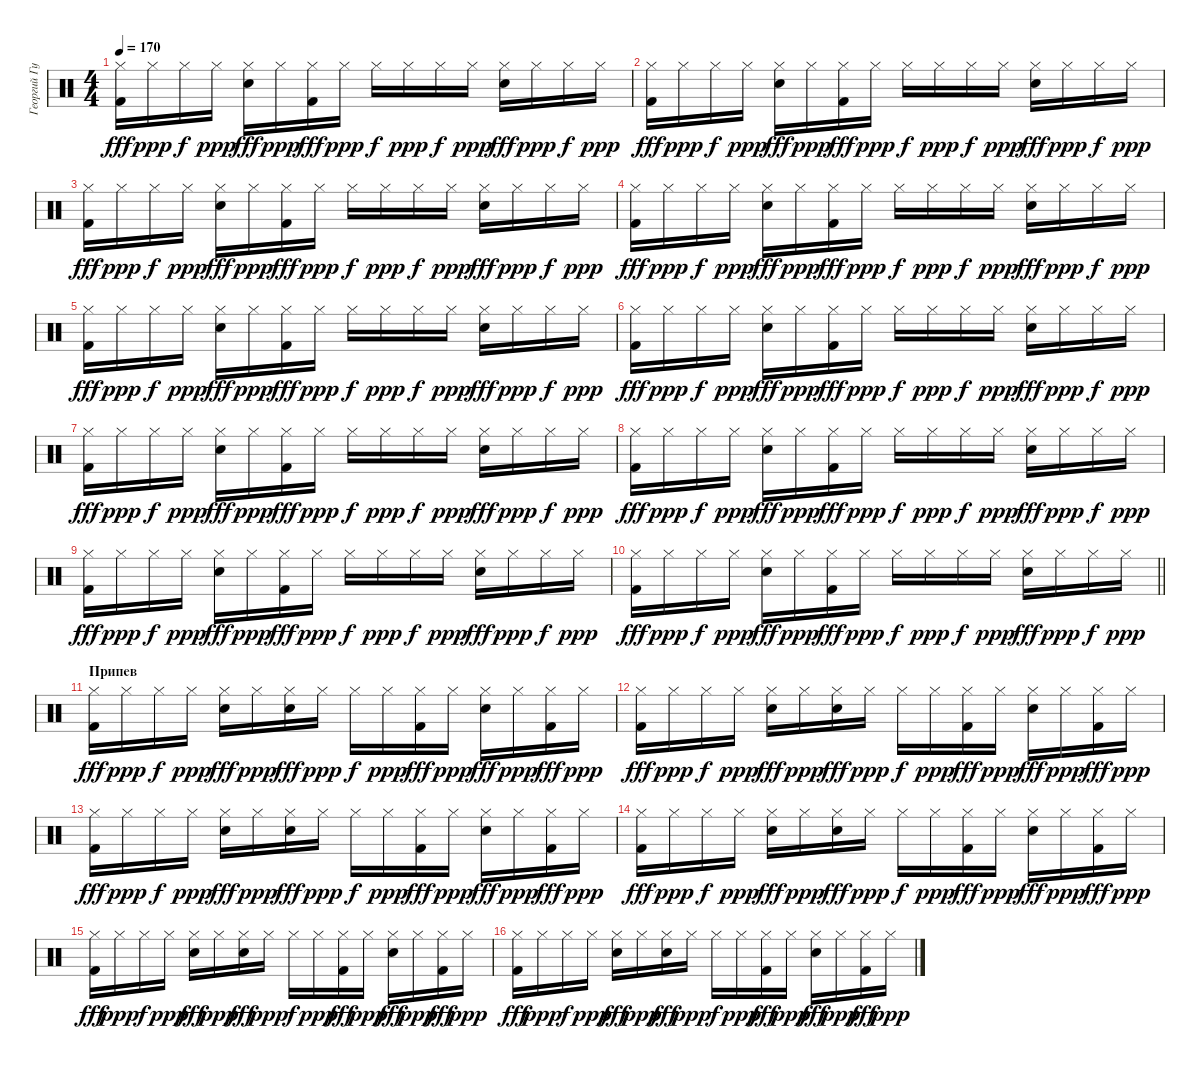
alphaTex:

\track ("Георгий Гурьянов" "Георгий Гу") {instrument percussion}
\staff {score}
\articulation defaults
\ts (4 4)
\tempo 170
\clef neutral
\ks c
("Hi-Hat (closed)" "Kick (hit) 2").16{dy fff} "Hi-Hat (closed)".16{dy ppp} "Hi-Hat (closed)".16{dy f} "Hi-Hat (closed)".16{dy ppp} ("Hi-Hat (closed)" "Electric Snare (hit)").16{dy fff} "Hi-Hat (closed)".16{dy ppp} ("Hi-Hat (closed)" "Kick (hit) 2").16{dy fff} "Hi-Hat (closed)".16{dy ppp} "Hi-Hat (closed)".16{dy f} "Hi-Hat (closed)".16{dy ppp} "Hi-Hat (closed)".16{dy f} "Hi-Hat (closed)".16{dy ppp} ("Hi-Hat (closed)" "Electric Snare (hit)").16{dy fff} "Hi-Hat (closed)".16{dy ppp} "Hi-Hat (closed)".16{dy f} "Hi-Hat (closed)".16{dy ppp} |
("Hi-Hat (closed)" "Kick (hit) 2").16{dy fff} "Hi-Hat (closed)".16{dy ppp} "Hi-Hat (closed)".16{dy f} "Hi-Hat (closed)".16{dy ppp} ("Hi-Hat (closed)" "Electric Snare (hit)").16{dy fff} "Hi-Hat (closed)".16{dy ppp} ("Hi-Hat (closed)" "Kick (hit) 2").16{dy fff} "Hi-Hat (closed)".16{dy ppp} "Hi-Hat (closed)".16{dy f} "Hi-Hat (closed)".16{dy ppp} "Hi-Hat (closed)".16{dy f} "Hi-Hat (closed)".16{dy ppp} ("Hi-Hat (closed)" "Electric Snare (hit)").16{dy fff} "Hi-Hat (closed)".16{dy ppp} "Hi-Hat (closed)".16{dy f} "Hi-Hat (closed)".16{dy ppp} |
("Hi-Hat (closed)" "Kick (hit) 2").16{dy fff} "Hi-Hat (closed)".16{dy ppp} "Hi-Hat (closed)".16{dy f} "Hi-Hat (closed)".16{dy ppp} ("Hi-Hat (closed)" "Electric Snare (hit)").16{dy fff} "Hi-Hat (closed)".16{dy ppp} ("Hi-Hat (closed)" "Kick (hit) 2").16{dy fff} "Hi-Hat (closed)".16{dy ppp} "Hi-Hat (closed)".16{dy f} "Hi-Hat (closed)".16{dy ppp} "Hi-Hat (closed)".16{dy f} "Hi-Hat (closed)".16{dy ppp} ("Hi-Hat (closed)" "Electric Snare (hit)").16{dy fff} "Hi-Hat (closed)".16{dy ppp} "Hi-Hat (closed)".16{dy f} "Hi-Hat (closed)".16{dy ppp} |
("Hi-Hat (closed)" "Kick (hit) 2").16{dy fff} "Hi-Hat (closed)".16{dy ppp} "Hi-Hat (closed)".16{dy f} "Hi-Hat (closed)".16{dy ppp} ("Hi-Hat (closed)" "Electric Snare (hit)").16{dy fff} "Hi-Hat (closed)".16{dy ppp} ("Hi-Hat (closed)" "Kick (hit) 2").16{dy fff} "Hi-Hat (closed)".16{dy ppp} "Hi-Hat (closed)".16{dy f} "Hi-Hat (closed)".16{dy ppp} "Hi-Hat (closed)".16{dy f} "Hi-Hat (closed)".16{dy ppp} ("Hi-Hat (closed)" "Electric Snare (hit)").16{dy fff} "Hi-Hat (closed)".16{dy ppp} "Hi-Hat (closed)".16{dy f} "Hi-Hat (closed)".16{dy ppp} |
("Hi-Hat (closed)" "Kick (hit) 2").16{dy fff} "Hi-Hat (closed)".16{dy ppp} "Hi-Hat (closed)".16{dy f} "Hi-Hat (closed)".16{dy ppp} ("Hi-Hat (closed)" "Electric Snare (hit)").16{dy fff} "Hi-Hat (closed)".16{dy ppp} ("Hi-Hat (closed)" "Kick (hit) 2").16{dy fff} "Hi-Hat (closed)".16{dy ppp} "Hi-Hat (closed)".16{dy f} "Hi-Hat (closed)".16{dy ppp} "Hi-Hat (closed)".16{dy f} "Hi-Hat (closed)".16{dy ppp} ("Hi-Hat (closed)" "Electric Snare (hit)").16{dy fff} "Hi-Hat (closed)".16{dy ppp} "Hi-Hat (closed)".16{dy f} "Hi-Hat (closed)".16{dy ppp} |
("Hi-Hat (closed)" "Kick (hit) 2").16{dy fff} "Hi-Hat (closed)".16{dy ppp} "Hi-Hat (closed)".16{dy f} "Hi-Hat (closed)".16{dy ppp} ("Hi-Hat (closed)" "Electric Snare (hit)").16{dy fff} "Hi-Hat (closed)".16{dy ppp} ("Hi-Hat (closed)" "Kick (hit) 2").16{dy fff} "Hi-Hat (closed)".16{dy ppp} "Hi-Hat (closed)".16{dy f} "Hi-Hat (closed)".16{dy ppp} "Hi-Hat (closed)".16{dy f} "Hi-Hat (closed)".16{dy ppp} ("Hi-Hat (closed)" "Electric Snare (hit)").16{dy fff} "Hi-Hat (closed)".16{dy ppp} "Hi-Hat (closed)".16{dy f} "Hi-Hat (closed)".16{dy ppp} |
("Hi-Hat (closed)" "Kick (hit) 2").16{dy fff} "Hi-Hat (closed)".16{dy ppp} "Hi-Hat (closed)".16{dy f} "Hi-Hat (closed)".16{dy ppp} ("Hi-Hat (closed)" "Electric Snare (hit)").16{dy fff} "Hi-Hat (closed)".16{dy ppp} ("Hi-Hat (closed)" "Kick (hit) 2").16{dy fff} "Hi-Hat (closed)".16{dy ppp} "Hi-Hat (closed)".16{dy f} "Hi-Hat (closed)".16{dy ppp} "Hi-Hat (closed)".16{dy f} "Hi-Hat (closed)".16{dy ppp} ("Hi-Hat (closed)" "Electric Snare (hit)").16{dy fff} "Hi-Hat (closed)".16{dy ppp} "Hi-Hat (closed)".16{dy f} "Hi-Hat (closed)".16{dy ppp} |
("Hi-Hat (closed)" "Kick (hit) 2").16{dy fff} "Hi-Hat (closed)".16{dy ppp} "Hi-Hat (closed)".16{dy f} "Hi-Hat (closed)".16{dy ppp} ("Hi-Hat (closed)" "Electric Snare (hit)").16{dy fff} "Hi-Hat (closed)".16{dy ppp} ("Hi-Hat (closed)" "Kick (hit) 2").16{dy fff} "Hi-Hat (closed)".16{dy ppp} "Hi-Hat (closed)".16{dy f} "Hi-Hat (closed)".16{dy ppp} "Hi-Hat (closed)".16{dy f} "Hi-Hat (closed)".16{dy ppp} ("Hi-Hat (closed)" "Electric Snare (hit)").16{dy fff} "Hi-Hat (closed)".16{dy ppp} "Hi-Hat (closed)".16{dy f} "Hi-Hat (closed)".16{dy ppp} |
("Hi-Hat (closed)" "Kick (hit) 2").16{dy fff} "Hi-Hat (closed)".16{dy ppp} "Hi-Hat (closed)".16{dy f} "Hi-Hat (closed)".16{dy ppp} ("Hi-Hat (closed)" "Electric Snare (hit)").16{dy fff} "Hi-Hat (closed)".16{dy ppp} ("Hi-Hat (closed)" "Kick (hit) 2").16{dy fff} "Hi-Hat (closed)".16{dy ppp} "Hi-Hat (closed)".16{dy f} "Hi-Hat (closed)".16{dy ppp} "Hi-Hat (closed)".16{dy f} "Hi-Hat (closed)".16{dy ppp} ("Hi-Hat (closed)" "Electric Snare (hit)").16{dy fff} "Hi-Hat (closed)".16{dy ppp} "Hi-Hat (closed)".16{dy f} "Hi-Hat (closed)".16{dy ppp} |
\barLineRight lightlight
("Hi-Hat (closed)" "Kick (hit) 2").16{dy fff} "Hi-Hat (closed)".16{dy ppp} "Hi-Hat (closed)".16{dy f} "Hi-Hat (closed)".16{dy ppp} ("Hi-Hat (closed)" "Electric Snare (hit)").16{dy fff} "Hi-Hat (closed)".16{dy ppp} ("Hi-Hat (closed)" "Kick (hit) 2").16{dy fff} "Hi-Hat (closed)".16{dy ppp} "Hi-Hat (closed)".16{dy f} "Hi-Hat (closed)".16{dy ppp} "Hi-Hat (closed)".16{dy f} "Hi-Hat (closed)".16{dy ppp} ("Hi-Hat (closed)" "Electric Snare (hit)").16{dy fff} "Hi-Hat (closed)".16{dy ppp} "Hi-Hat (closed)".16{dy f} "Hi-Hat (closed)".16{dy ppp} |
\section ("" "Припев")
("Hi-Hat (closed)" "Kick (hit) 2").16{dy fff} "Hi-Hat (closed)".16{dy ppp} "Hi-Hat (closed)".16{dy f} "Hi-Hat (closed)".16{dy ppp} ("Hi-Hat (closed)" "Electric Snare (hit)").16{dy fff} "Hi-Hat (closed)".16{dy ppp} ("Hi-Hat (closed)" "Electric Snare (hit)").16{dy fff} "Hi-Hat (closed)".16{dy ppp} "Hi-Hat (closed)".16{dy f} "Hi-Hat (closed)".16{dy ppp} ("Hi-Hat (closed)" "Kick (hit) 2").16{dy fff} "Hi-Hat (closed)".16{dy ppp} ("Hi-Hat (closed)" "Electric Snare (hit)").16{dy fff} "Hi-Hat (closed)".16{dy ppp} ("Hi-Hat (closed)" "Kick (hit) 2").16{dy fff} "Hi-Hat (closed)".16{dy ppp} |
("Hi-Hat (closed)" "Kick (hit) 2").16{dy fff} "Hi-Hat (closed)".16{dy ppp} "Hi-Hat (closed)".16{dy f} "Hi-Hat (closed)".16{dy ppp} ("Hi-Hat (closed)" "Electric Snare (hit)").16{dy fff} "Hi-Hat (closed)".16{dy ppp} ("Hi-Hat (closed)" "Electric Snare (hit)").16{dy fff} "Hi-Hat (closed)".16{dy ppp} "Hi-Hat (closed)".16{dy f} "Hi-Hat (closed)".16{dy ppp} ("Hi-Hat (closed)" "Kick (hit) 2").16{dy fff} "Hi-Hat (closed)".16{dy ppp} ("Hi-Hat (closed)" "Electric Snare (hit)").16{dy fff} "Hi-Hat (closed)".16{dy ppp} ("Hi-Hat (closed)" "Kick (hit) 2").16{dy fff} "Hi-Hat (closed)".16{dy ppp} |
("Hi-Hat (closed)" "Kick (hit) 2").16{dy fff} "Hi-Hat (closed)".16{dy ppp} "Hi-Hat (closed)".16{dy f} "Hi-Hat (closed)".16{dy ppp} ("Hi-Hat (closed)" "Electric Snare (hit)").16{dy fff} "Hi-Hat (closed)".16{dy ppp} ("Hi-Hat (closed)" "Electric Snare (hit)").16{dy fff} "Hi-Hat (closed)".16{dy ppp} "Hi-Hat (closed)".16{dy f} "Hi-Hat (closed)".16{dy ppp} ("Hi-Hat (closed)" "Kick (hit) 2").16{dy fff} "Hi-Hat (closed)".16{dy ppp} ("Hi-Hat (closed)" "Electric Snare (hit)").16{dy fff} "Hi-Hat (closed)".16{dy ppp} ("Hi-Hat (closed)" "Kick (hit) 2").16{dy fff} "Hi-Hat (closed)".16{dy ppp} |
("Hi-Hat (closed)" "Kick (hit) 2").16{dy fff} "Hi-Hat (closed)".16{dy ppp} "Hi-Hat (closed)".16{dy f} "Hi-Hat (closed)".16{dy ppp} ("Hi-Hat (closed)" "Electric Snare (hit)").16{dy fff} "Hi-Hat (closed)".16{dy ppp} ("Hi-Hat (closed)" "Electric Snare (hit)").16{dy fff} "Hi-Hat (closed)".16{dy ppp} "Hi-Hat (closed)".16{dy f} "Hi-Hat (closed)".16{dy ppp} ("Hi-Hat (closed)" "Kick (hit) 2").16{dy fff} "Hi-Hat (closed)".16{dy ppp} ("Hi-Hat (closed)" "Electric Snare (hit)").16{dy fff} "Hi-Hat (closed)".16{dy ppp} ("Hi-Hat (closed)" "Kick (hit) 2").16{dy fff} "Hi-Hat (closed)".16{dy ppp} |
("Hi-Hat (closed)" "Kick (hit) 2").16{dy fff} "Hi-Hat (closed)".16{dy ppp} "Hi-Hat (closed)".16{dy f} "Hi-Hat (closed)".16{dy ppp} ("Hi-Hat (closed)" "Electric Snare (hit)").16{dy fff} "Hi-Hat (closed)".16{dy ppp} ("Hi-Hat (closed)" "Electric Snare (hit)").16{dy fff} "Hi-Hat (closed)".16{dy ppp} "Hi-Hat (closed)".16{dy f} "Hi-Hat (closed)".16{dy ppp} ("Hi-Hat (closed)" "Kick (hit) 2").16{dy fff} "Hi-Hat (closed)".16{dy ppp} ("Hi-Hat (closed)" "Electric Snare (hit)").16{dy fff} "Hi-Hat (closed)".16{dy ppp} ("Hi-Hat (closed)" "Kick (hit) 2").16{dy fff} "Hi-Hat (closed)".16{dy ppp} |
("Hi-Hat (closed)" "Kick (hit) 2").16{dy fff} "Hi-Hat (closed)".16{dy ppp} "Hi-Hat (closed)".16{dy f} "Hi-Hat (closed)".16{dy ppp} ("Hi-Hat (closed)" "Electric Snare (hit)").16{dy fff} "Hi-Hat (closed)".16{dy ppp} ("Hi-Hat (closed)" "Electric Snare (hit)").16{dy fff} "Hi-Hat (closed)".16{dy ppp} "Hi-Hat (closed)".16{dy f} "Hi-Hat (closed)".16{dy ppp} ("Hi-Hat (closed)" "Kick (hit) 2").16{dy fff} "Hi-Hat (closed)".16{dy ppp} ("Hi-Hat (closed)" "Electric Snare (hit)").16{dy fff} "Hi-Hat (closed)".16{dy ppp} ("Hi-Hat (closed)" "Kick (hit) 2").16{dy fff} "Hi-Hat (closed)".16{dy ppp}
